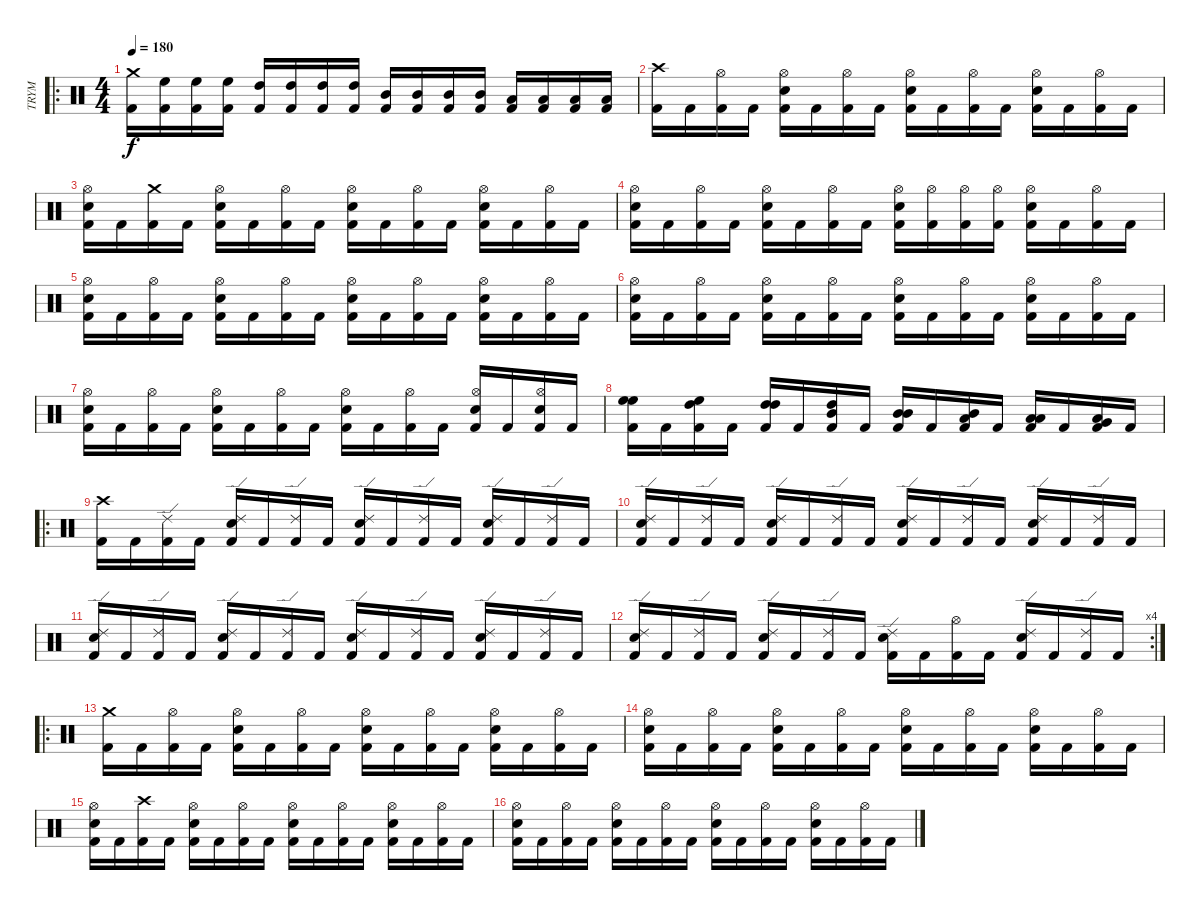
\track ("TRYM" "TRYM") {instrument percussion}
\staff {score}
\articulation defaults
\ro
\ts (4 4)
\tempo 180
\clef neutral
\ks c
("Kick (hit) 2" "Crash medium (hit)").16{dy f} ("Kick (hit) 2" "High Floor Tom (hit)").16 ("Kick (hit) 2" "High Floor Tom (hit)").16 ("Kick (hit) 2" "High Floor Tom (hit)").16 ("Kick (hit) 2" "High Tom (hit)").16 ("Kick (hit) 2" "High Tom (hit)").16 ("Kick (hit) 2" "High Tom (hit)").16 ("Kick (hit) 2" "High Tom (hit)").16 ("Kick (hit) 2" "Mid Tom (hit)").16 ("Kick (hit) 2" "Mid Tom (hit)").16 ("Kick (hit) 2" "Mid Tom (hit)").16 ("Kick (hit) 2" "Mid Tom (hit)").16 ("Kick (hit) 2" "Low Tom (hit)").16 ("Kick (hit) 2" "Low Tom (hit)").16 ("Kick (hit) 2" "Low Tom (hit)").16 ("Kick (hit) 2" "Low Tom (hit)").16 |
("Kick (hit) 2" "Crash high (hit)").16 "Kick (hit) 2".16 ("Kick (hit) 2" "Hi-Hat (open)").16 "Kick (hit) 2".16 ("Kick (hit) 2" "Hi-Hat (open)" "Electric Snare (hit)").16 "Kick (hit) 2".16 ("Kick (hit) 2" "Hi-Hat (open)").16 "Kick (hit) 2".16 ("Kick (hit) 2" "Hi-Hat (open)" "Electric Snare (hit)").16 "Kick (hit) 2".16 ("Kick (hit) 2" "Hi-Hat (open)").16 "Kick (hit) 2".16 ("Kick (hit) 2" "Hi-Hat (open)" "Electric Snare (hit)").16 "Kick (hit) 2".16 ("Kick (hit) 2" "Hi-Hat (open)").16 "Kick (hit) 2".16 |
("Kick (hit) 2" "Hi-Hat (open)" "Electric Snare (hit)").16 "Kick (hit) 2".16 ("Kick (hit) 2" "Crash medium (hit)").16 "Kick (hit) 2".16 ("Kick (hit) 2" "Hi-Hat (open)" "Electric Snare (hit)").16 "Kick (hit) 2".16 ("Kick (hit) 2" "Hi-Hat (open)").16 "Kick (hit) 2".16 ("Kick (hit) 2" "Hi-Hat (open)" "Electric Snare (hit)").16 "Kick (hit) 2".16 ("Kick (hit) 2" "Hi-Hat (open)").16 "Kick (hit) 2".16 ("Kick (hit) 2" "Hi-Hat (open)" "Electric Snare (hit)").16 "Kick (hit) 2".16 ("Kick (hit) 2" "Hi-Hat (open)").16 "Kick (hit) 2".16 |
("Kick (hit) 2" "Hi-Hat (open)" "Electric Snare (hit)").16 "Kick (hit) 2".16 ("Kick (hit) 2" "Hi-Hat (open)").16 "Kick (hit) 2".16 ("Kick (hit) 2" "Hi-Hat (open)" "Electric Snare (hit)").16 "Kick (hit) 2".16 ("Kick (hit) 2" "Hi-Hat (open)").16 "Kick (hit) 2".16 ("Kick (hit) 2" "Hi-Hat (open)" "Electric Snare (hit)").16 ("Kick (hit) 2" "Hi-Hat (open)").16 ("Kick (hit) 2" "Hi-Hat (open)").16 ("Kick (hit) 2" "Hi-Hat (open)").16 ("Kick (hit) 2" "Hi-Hat (open)" "Electric Snare (hit)").16 "Kick (hit) 2".16 ("Kick (hit) 2" "Hi-Hat (open)").16 "Kick (hit) 2".16 |
("Kick (hit) 2" "Hi-Hat (open)" "Electric Snare (hit)").16 "Kick (hit) 2".16 ("Kick (hit) 2" "Hi-Hat (open)").16 "Kick (hit) 2".16 ("Kick (hit) 2" "Hi-Hat (open)" "Electric Snare (hit)").16 "Kick (hit) 2".16 ("Kick (hit) 2" "Hi-Hat (open)").16 "Kick (hit) 2".16 ("Kick (hit) 2" "Hi-Hat (open)" "Electric Snare (hit)").16 "Kick (hit) 2".16 ("Kick (hit) 2" "Hi-Hat (open)").16 "Kick (hit) 2".16 ("Kick (hit) 2" "Hi-Hat (open)" "Electric Snare (hit)").16 "Kick (hit) 2".16 ("Kick (hit) 2" "Hi-Hat (open)").16 "Kick (hit) 2".16 |
("Kick (hit) 2" "Hi-Hat (open)" "Electric Snare (hit)").16 "Kick (hit) 2".16 ("Kick (hit) 2" "Hi-Hat (open)").16 "Kick (hit) 2".16 ("Kick (hit) 2" "Hi-Hat (open)" "Electric Snare (hit)").16 "Kick (hit) 2".16 ("Kick (hit) 2" "Hi-Hat (open)").16 "Kick (hit) 2".16 ("Kick (hit) 2" "Hi-Hat (open)" "Electric Snare (hit)").16 "Kick (hit) 2".16 ("Kick (hit) 2" "Hi-Hat (open)").16 "Kick (hit) 2".16 ("Kick (hit) 2" "Hi-Hat (open)" "Electric Snare (hit)").16 "Kick (hit) 2".16 ("Kick (hit) 2" "Hi-Hat (open)").16 "Kick (hit) 2".16 |
("Kick (hit) 2" "Hi-Hat (open)" "Electric Snare (hit)").16 "Kick (hit) 2".16 ("Kick (hit) 2" "Hi-Hat (open)").16 "Kick (hit) 2".16 ("Kick (hit) 2" "Hi-Hat (open)" "Electric Snare (hit)").16 "Kick (hit) 2".16 ("Kick (hit) 2" "Hi-Hat (open)").16 "Kick (hit) 2".16 ("Kick (hit) 2" "Hi-Hat (open)" "Electric Snare (hit)").16 "Kick (hit) 2".16 ("Kick (hit) 2" "Hi-Hat (open)").16 "Kick (hit) 2".16 ("Kick (hit) 2" "Hi-Hat (open)" "Electric Snare (hit)").16 "Kick (hit) 2".16 ("Kick (hit) 2" "Hi-Hat (open)" "Electric Snare (hit)").16 "Kick (hit) 2".16 |
("Kick (hit) 2" "High Floor Tom (hit)" "High Floor Tom (hit)").16 "Kick (hit) 2".16 ("Kick (hit) 2" "High Tom (hit)" "High Floor Tom (hit)").16 "Kick (hit) 2".16 ("Kick (hit) 2" "High Tom (hit)" "High Tom (hit)").16 "Kick (hit) 2".16 ("Kick (hit) 2" "Mid Tom (hit)" "High Tom (hit)").16 "Kick (hit) 2".16 ("Kick (hit) 2" "Mid Tom (hit)" "Mid Tom (hit)").16 "Kick (hit) 2".16 ("Kick (hit) 2" "Low Tom (hit)" "Mid Tom (hit)").16 "Kick (hit) 2".16 ("Kick (hit) 2" "Low Tom (hit)" "Low Tom (hit)").16 "Kick (hit) 2".16 ("Kick (hit) 2" "Very Low Tom (hit)" "Low Tom (hit)").16 "Kick (hit) 2".16 |
\ro
("Kick (hit) 2" "Crash high (hit)").16 "Kick (hit) 2".16 ("Kick (hit) 2" "Ride (edge) 2").16 "Kick (hit) 2".16 ("Kick (hit) 2" "Ride (edge) 2" "Electric Snare (hit)").16 "Kick (hit) 2".16 ("Kick (hit) 2" "Ride (edge) 2").16 "Kick (hit) 2".16 ("Kick (hit) 2" "Ride (edge) 2" "Electric Snare (hit)").16 "Kick (hit) 2".16 ("Kick (hit) 2" "Ride (edge) 2").16 "Kick (hit) 2".16 ("Kick (hit) 2" "Ride (edge) 2" "Electric Snare (hit)").16 "Kick (hit) 2".16 ("Kick (hit) 2" "Ride (edge) 2").16 "Kick (hit) 2".16 |
("Kick (hit) 2" "Ride (edge) 2" "Electric Snare (hit)").16 "Kick (hit) 2".16 ("Kick (hit) 2" "Ride (edge) 2").16 "Kick (hit) 2".16 ("Kick (hit) 2" "Ride (edge) 2" "Electric Snare (hit)").16 "Kick (hit) 2".16 ("Kick (hit) 2" "Ride (edge) 2").16 "Kick (hit) 2".16 ("Kick (hit) 2" "Ride (edge) 2" "Electric Snare (hit)").16 "Kick (hit) 2".16 ("Kick (hit) 2" "Ride (edge) 2").16 "Kick (hit) 2".16 ("Kick (hit) 2" "Ride (edge) 2" "Electric Snare (hit)").16 "Kick (hit) 2".16 ("Kick (hit) 2" "Ride (edge) 2").16 "Kick (hit) 2".16 |
("Kick (hit) 2" "Ride (edge) 2" "Electric Snare (hit)").16 "Kick (hit) 2".16 ("Kick (hit) 2" "Ride (edge) 2").16 "Kick (hit) 2".16 ("Kick (hit) 2" "Ride (edge) 2" "Electric Snare (hit)").16 "Kick (hit) 2".16 ("Kick (hit) 2" "Ride (edge) 2").16 "Kick (hit) 2".16 ("Kick (hit) 2" "Ride (edge) 2" "Electric Snare (hit)").16 "Kick (hit) 2".16 ("Kick (hit) 2" "Ride (edge) 2").16 "Kick (hit) 2".16 ("Kick (hit) 2" "Ride (edge) 2" "Electric Snare (hit)").16 "Kick (hit) 2".16 ("Kick (hit) 2" "Ride (edge) 2").16 "Kick (hit) 2".16 |
\rc 4
("Kick (hit) 2" "Ride (edge) 2" "Electric Snare (hit)").16 "Kick (hit) 2".16 ("Kick (hit) 2" "Ride (edge) 2").16 "Kick (hit) 2".16 ("Kick (hit) 2" "Ride (edge) 2" "Electric Snare (hit)").16 "Kick (hit) 2".16 ("Kick (hit) 2" "Ride (edge) 2").16 "Kick (hit) 2".16 ("Kick (hit) 2" "Ride (edge) 2" "Electric Snare (hit)").16 "Kick (hit) 2".16 ("Kick (hit) 2" "Hi-Hat (open)").16 "Kick (hit) 2".16 ("Kick (hit) 2" "Ride (edge) 2" "Electric Snare (hit)").16 "Kick (hit) 2".16 ("Kick (hit) 2" "Ride (edge) 2").16 "Kick (hit) 2".16 |
\ro
("Kick (hit) 2" "Crash medium (hit)").16 "Kick (hit) 2".16 ("Kick (hit) 2" "Hi-Hat (open)").16 "Kick (hit) 2".16 ("Kick (hit) 2" "Hi-Hat (open)" "Electric Snare (hit)").16 "Kick (hit) 2".16 ("Kick (hit) 2" "Hi-Hat (open)").16 "Kick (hit) 2".16 ("Kick (hit) 2" "Hi-Hat (open)" "Electric Snare (hit)").16 "Kick (hit) 2".16 ("Kick (hit) 2" "Hi-Hat (open)").16 "Kick (hit) 2".16 ("Kick (hit) 2" "Hi-Hat (open)" "Electric Snare (hit)").16 "Kick (hit) 2".16 ("Kick (hit) 2" "Hi-Hat (open)").16 "Kick (hit) 2".16 |
("Kick (hit) 2" "Hi-Hat (open)" "Electric Snare (hit)").16 "Kick (hit) 2".16 ("Kick (hit) 2" "Hi-Hat (open)").16 "Kick (hit) 2".16 ("Kick (hit) 2" "Hi-Hat (open)" "Electric Snare (hit)").16 "Kick (hit) 2".16 ("Kick (hit) 2" "Hi-Hat (open)").16 "Kick (hit) 2".16 ("Kick (hit) 2" "Hi-Hat (open)" "Electric Snare (hit)").16 "Kick (hit) 2".16 ("Kick (hit) 2" "Hi-Hat (open)").16 "Kick (hit) 2".16 ("Kick (hit) 2" "Hi-Hat (open)" "Electric Snare (hit)").16 "Kick (hit) 2".16 ("Kick (hit) 2" "Hi-Hat (open)").16 "Kick (hit) 2".16 |
("Kick (hit) 2" "Hi-Hat (open)" "Electric Snare (hit)").16 "Kick (hit) 2".16 ("Kick (hit) 2" "Crash high (hit)").16 "Kick (hit) 2".16 ("Kick (hit) 2" "Hi-Hat (open)" "Electric Snare (hit)").16 "Kick (hit) 2".16 ("Kick (hit) 2" "Hi-Hat (open)").16 "Kick (hit) 2".16 ("Kick (hit) 2" "Hi-Hat (open)" "Electric Snare (hit)").16 "Kick (hit) 2".16 ("Kick (hit) 2" "Hi-Hat (open)").16 "Kick (hit) 2".16 ("Kick (hit) 2" "Hi-Hat (open)" "Electric Snare (hit)").16 "Kick (hit) 2".16 ("Kick (hit) 2" "Hi-Hat (open)").16 "Kick (hit) 2".16 |
("Kick (hit) 2" "Hi-Hat (open)" "Electric Snare (hit)").16 "Kick (hit) 2".16 ("Kick (hit) 2" "Hi-Hat (open)").16 "Kick (hit) 2".16 ("Kick (hit) 2" "Hi-Hat (open)" "Electric Snare (hit)").16 "Kick (hit) 2".16 ("Kick (hit) 2" "Hi-Hat (open)").16 "Kick (hit) 2".16 ("Kick (hit) 2" "Hi-Hat (open)" "Electric Snare (hit)").16 "Kick (hit) 2".16 ("Kick (hit) 2" "Hi-Hat (open)").16 "Kick (hit) 2".16 ("Kick (hit) 2" "Hi-Hat (open)" "Electric Snare (hit)").16 "Kick (hit) 2".16 ("Kick (hit) 2" "Hi-Hat (open)").16 "Kick (hit) 2".16
